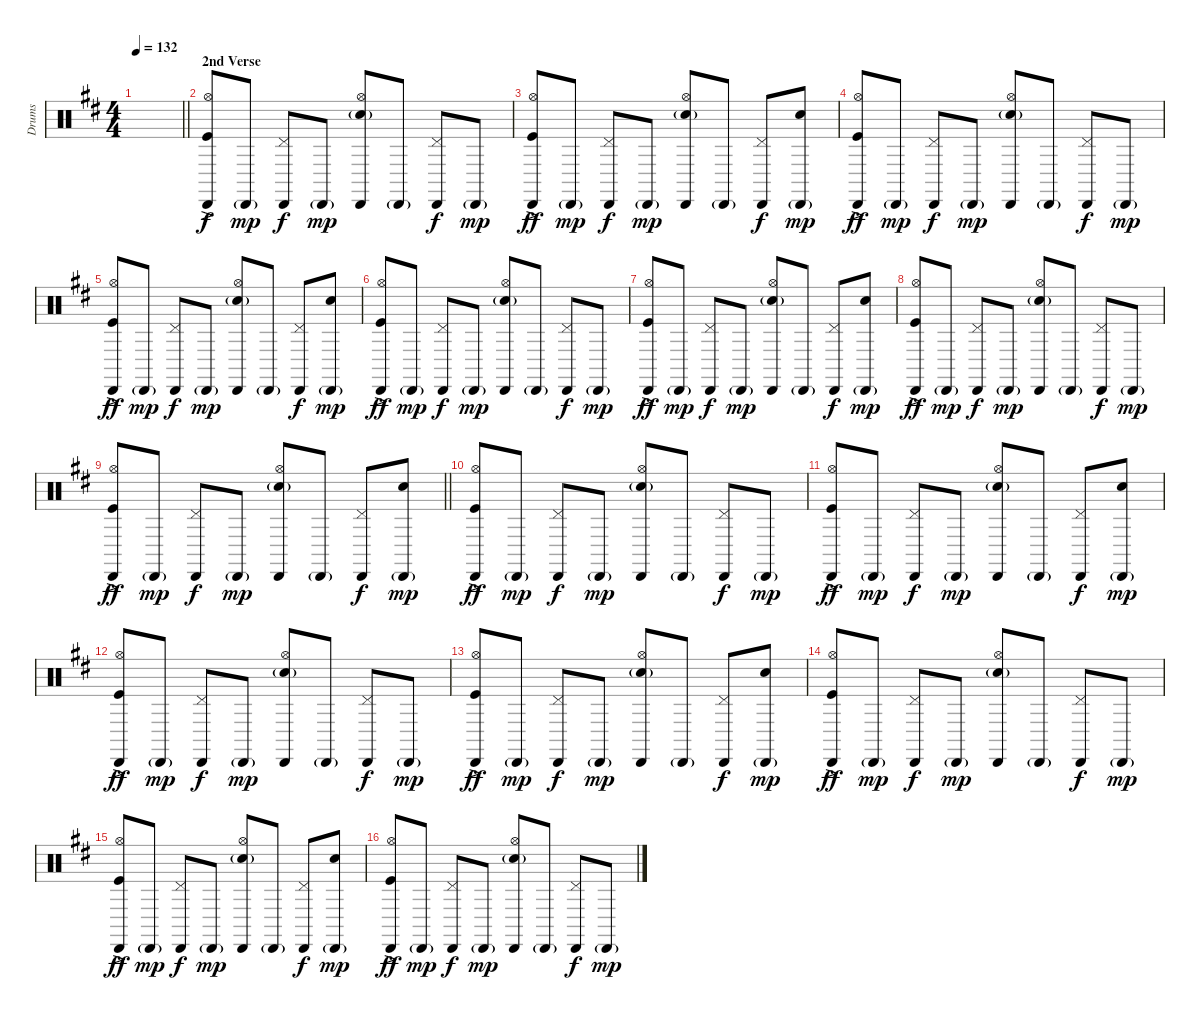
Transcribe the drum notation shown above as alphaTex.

\track ("Drums" "Drums") {instrument percussion}
\staff {score}
\articulation defaults
\ts (4 4)
\tempo 132
\clef neutral
\barLineRight lightlight
\ks d
|
\section ("" "2nd Verse")
("Cabasa (hit)" "Hi-Hat (open)" "Kick (hit)"{ac}).8 "Cabasa (hit)"{g}.8{dy mp} ("Cabasa (hit)" "Pedal Hi-Hat (hit)").8{dy f} "Cabasa (hit)"{g}.8{dy mp} ("Cabasa (hit)" "Hi-Hat (open)" "Snare (hit) 2"{g}).8 "Cabasa (hit)"{g}.8 ("Cabasa (hit)" "Pedal Hi-Hat (hit)").8{dy f} "Cabasa (hit)"{g}.8{dy mp} |
("Cabasa (hit)" "Hi-Hat (open)" "Kick (hit)"{ac}).8{dy ff} "Cabasa (hit)"{g}.8{dy mp} ("Cabasa (hit)" "Pedal Hi-Hat (hit)").8{dy f} "Cabasa (hit)"{g}.8{dy mp} ("Cabasa (hit)" "Hi-Hat (open)" "Snare (hit) 2"{g}).8 "Cabasa (hit)"{g}.8 ("Cabasa (hit)" "Pedal Hi-Hat (hit)").8{dy f} ("Cabasa (hit)"{g} "Snare (hit) 2").8{dy mp} |
("Cabasa (hit)" "Hi-Hat (open)" "Kick (hit)"{ac}).8{dy ff} "Cabasa (hit)"{g}.8{dy mp} ("Cabasa (hit)" "Pedal Hi-Hat (hit)").8{dy f} "Cabasa (hit)"{g}.8{dy mp} ("Cabasa (hit)" "Hi-Hat (open)" "Snare (hit) 2"{g}).8 "Cabasa (hit)"{g}.8 ("Cabasa (hit)" "Pedal Hi-Hat (hit)").8{dy f} "Cabasa (hit)"{g}.8{dy mp} |
("Cabasa (hit)" "Hi-Hat (open)" "Kick (hit)"{ac}).8{dy ff} "Cabasa (hit)"{g}.8{dy mp} ("Cabasa (hit)" "Pedal Hi-Hat (hit)").8{dy f} "Cabasa (hit)"{g}.8{dy mp} ("Cabasa (hit)" "Hi-Hat (open)" "Snare (hit) 2"{g}).8 "Cabasa (hit)"{g}.8 ("Cabasa (hit)" "Pedal Hi-Hat (hit)").8{dy f} ("Cabasa (hit)"{g} "Snare (hit) 2").8{dy mp} |
("Cabasa (hit)" "Hi-Hat (open)" "Kick (hit)"{ac}).8{dy ff} "Cabasa (hit)"{g}.8{dy mp} ("Cabasa (hit)" "Pedal Hi-Hat (hit)").8{dy f} "Cabasa (hit)"{g}.8{dy mp} ("Cabasa (hit)" "Hi-Hat (open)" "Snare (hit) 2"{g}).8 "Cabasa (hit)"{g}.8 ("Cabasa (hit)" "Pedal Hi-Hat (hit)").8{dy f} "Cabasa (hit)"{g}.8{dy mp} |
("Cabasa (hit)" "Hi-Hat (open)" "Kick (hit)"{ac}).8{dy ff} "Cabasa (hit)"{g}.8{dy mp} ("Cabasa (hit)" "Pedal Hi-Hat (hit)").8{dy f} "Cabasa (hit)"{g}.8{dy mp} ("Cabasa (hit)" "Hi-Hat (open)" "Snare (hit) 2"{g}).8 "Cabasa (hit)"{g}.8 ("Cabasa (hit)" "Pedal Hi-Hat (hit)").8{dy f} ("Cabasa (hit)"{g} "Snare (hit) 2").8{dy mp} |
("Cabasa (hit)" "Hi-Hat (open)" "Kick (hit)"{ac}).8{dy ff} "Cabasa (hit)"{g}.8{dy mp} ("Cabasa (hit)" "Pedal Hi-Hat (hit)").8{dy f} "Cabasa (hit)"{g}.8{dy mp} ("Cabasa (hit)" "Hi-Hat (open)" "Snare (hit) 2"{g}).8 "Cabasa (hit)"{g}.8 ("Cabasa (hit)" "Pedal Hi-Hat (hit)").8{dy f} "Cabasa (hit)"{g}.8{dy mp} |
\barLineRight lightlight
("Cabasa (hit)" "Hi-Hat (open)" "Kick (hit)"{ac}).8{dy ff} "Cabasa (hit)"{g}.8{dy mp} ("Cabasa (hit)" "Pedal Hi-Hat (hit)").8{dy f} "Cabasa (hit)"{g}.8{dy mp} ("Cabasa (hit)" "Hi-Hat (open)" "Snare (hit) 2"{g}).8 "Cabasa (hit)"{g}.8 ("Cabasa (hit)" "Pedal Hi-Hat (hit)").8{dy f} ("Cabasa (hit)"{g} "Snare (hit) 2").8{dy mp} |
("Cabasa (hit)" "Hi-Hat (open)" "Kick (hit)"{ac}).8{dy ff} "Cabasa (hit)"{g}.8{dy mp} ("Cabasa (hit)" "Pedal Hi-Hat (hit)").8{dy f} "Cabasa (hit)"{g}.8{dy mp} ("Cabasa (hit)" "Hi-Hat (open)" "Snare (hit) 2"{g}).8 "Cabasa (hit)"{g}.8 ("Cabasa (hit)" "Pedal Hi-Hat (hit)").8{dy f} "Cabasa (hit)"{g}.8{dy mp} |
("Cabasa (hit)" "Hi-Hat (open)" "Kick (hit)"{ac}).8{dy ff} "Cabasa (hit)"{g}.8{dy mp} ("Cabasa (hit)" "Pedal Hi-Hat (hit)").8{dy f} "Cabasa (hit)"{g}.8{dy mp} ("Cabasa (hit)" "Hi-Hat (open)" "Snare (hit) 2"{g}).8 "Cabasa (hit)"{g}.8 ("Cabasa (hit)" "Pedal Hi-Hat (hit)").8{dy f} ("Cabasa (hit)"{g} "Snare (hit) 2").8{dy mp} |
("Cabasa (hit)" "Hi-Hat (open)" "Kick (hit)"{ac}).8{dy ff} "Cabasa (hit)"{g}.8{dy mp} ("Cabasa (hit)" "Pedal Hi-Hat (hit)").8{dy f} "Cabasa (hit)"{g}.8{dy mp} ("Cabasa (hit)" "Hi-Hat (open)" "Snare (hit) 2"{g}).8 "Cabasa (hit)"{g}.8 ("Cabasa (hit)" "Pedal Hi-Hat (hit)").8{dy f} "Cabasa (hit)"{g}.8{dy mp} |
("Cabasa (hit)" "Hi-Hat (open)" "Kick (hit)"{ac}).8{dy ff} "Cabasa (hit)"{g}.8{dy mp} ("Cabasa (hit)" "Pedal Hi-Hat (hit)").8{dy f} "Cabasa (hit)"{g}.8{dy mp} ("Cabasa (hit)" "Hi-Hat (open)" "Snare (hit) 2"{g}).8 "Cabasa (hit)"{g}.8 ("Cabasa (hit)" "Pedal Hi-Hat (hit)").8{dy f} ("Cabasa (hit)"{g} "Snare (hit) 2").8{dy mp} |
("Cabasa (hit)" "Hi-Hat (open)" "Kick (hit)"{ac}).8{dy ff} "Cabasa (hit)"{g}.8{dy mp} ("Cabasa (hit)" "Pedal Hi-Hat (hit)").8{dy f} "Cabasa (hit)"{g}.8{dy mp} ("Cabasa (hit)" "Hi-Hat (open)" "Snare (hit) 2"{g}).8 "Cabasa (hit)"{g}.8 ("Cabasa (hit)" "Pedal Hi-Hat (hit)").8{dy f} "Cabasa (hit)"{g}.8{dy mp} |
("Cabasa (hit)" "Hi-Hat (open)" "Kick (hit)"{ac}).8{dy ff} "Cabasa (hit)"{g}.8{dy mp} ("Cabasa (hit)" "Pedal Hi-Hat (hit)").8{dy f} "Cabasa (hit)"{g}.8{dy mp} ("Cabasa (hit)" "Hi-Hat (open)" "Snare (hit) 2"{g}).8 "Cabasa (hit)"{g}.8 ("Cabasa (hit)" "Pedal Hi-Hat (hit)").8{dy f} ("Cabasa (hit)"{g} "Snare (hit) 2").8{dy mp} |
("Cabasa (hit)" "Hi-Hat (open)" "Kick (hit)"{ac}).8{dy ff} "Cabasa (hit)"{g}.8{dy mp} ("Cabasa (hit)" "Pedal Hi-Hat (hit)").8{dy f} "Cabasa (hit)"{g}.8{dy mp} ("Cabasa (hit)" "Hi-Hat (open)" "Snare (hit) 2"{g}).8 "Cabasa (hit)"{g}.8 ("Cabasa (hit)" "Pedal Hi-Hat (hit)").8{dy f} "Cabasa (hit)"{g}.8{dy mp}
